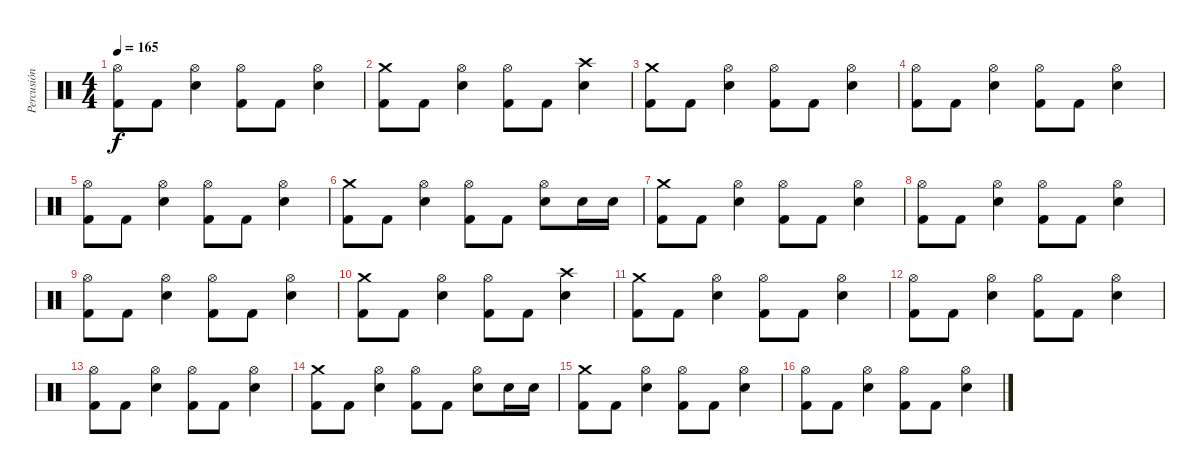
\track ("Percusión" "Percusión") {instrument percussion}
\staff {score}
\articulation defaults
\ts (4 4)
\tempo 165
\clef neutral
\ks c
("Hi-Hat (open)" "Kick (hit) 2").8{dy f} "Kick (hit) 2".8 ("Hi-Hat (open)" "Electric Snare (hit)").4 ("Hi-Hat (open)" "Kick (hit) 2").8 "Kick (hit) 2".8 ("Hi-Hat (open)" "Electric Snare (hit)").4 |
("Crash medium (hit)" "Kick (hit) 2").8 "Kick (hit) 2".8 ("Hi-Hat (open)" "Electric Snare (hit)").4 ("Hi-Hat (open)" "Kick (hit) 2").8 "Kick (hit) 2".8 ("Crash high (hit)" "Electric Snare (hit)").4 |
("Crash medium (hit)" "Kick (hit) 2").8 "Kick (hit) 2".8 ("Hi-Hat (open)" "Electric Snare (hit)").4 ("Hi-Hat (open)" "Kick (hit) 2").8 "Kick (hit) 2".8 ("Hi-Hat (open)" "Electric Snare (hit)").4 |
("Hi-Hat (open)" "Kick (hit) 2").8 "Kick (hit) 2".8 ("Hi-Hat (open)" "Electric Snare (hit)").4 ("Hi-Hat (open)" "Kick (hit) 2").8 "Kick (hit) 2".8 ("Hi-Hat (open)" "Electric Snare (hit)").4 |
("Hi-Hat (open)" "Kick (hit) 2").8 "Kick (hit) 2".8 ("Hi-Hat (open)" "Electric Snare (hit)").4 ("Hi-Hat (open)" "Kick (hit) 2").8 "Kick (hit) 2".8 ("Hi-Hat (open)" "Electric Snare (hit)").4 |
("Crash medium (hit)" "Kick (hit) 2").8 "Kick (hit) 2".8 ("Hi-Hat (open)" "Electric Snare (hit)").4 ("Hi-Hat (open)" "Kick (hit) 2").8 "Kick (hit) 2".8 ("Hi-Hat (open)" "Electric Snare (hit)").8 "Electric Snare (hit)".16 "Electric Snare (hit)".16 |
("Crash medium (hit)" "Kick (hit) 2").8 "Kick (hit) 2".8 ("Hi-Hat (open)" "Electric Snare (hit)").4 ("Hi-Hat (open)" "Kick (hit) 2").8 "Kick (hit) 2".8 ("Hi-Hat (open)" "Electric Snare (hit)").4 |
("Hi-Hat (open)" "Kick (hit) 2").8 "Kick (hit) 2".8 ("Hi-Hat (open)" "Electric Snare (hit)").4 ("Hi-Hat (open)" "Kick (hit) 2").8 "Kick (hit) 2".8 ("Hi-Hat (open)" "Electric Snare (hit)").4 |
("Hi-Hat (open)" "Kick (hit) 2").8 "Kick (hit) 2".8 ("Hi-Hat (open)" "Electric Snare (hit)").4 ("Hi-Hat (open)" "Kick (hit) 2").8 "Kick (hit) 2".8 ("Hi-Hat (open)" "Electric Snare (hit)").4 |
("Crash medium (hit)" "Kick (hit) 2").8 "Kick (hit) 2".8 ("Hi-Hat (open)" "Electric Snare (hit)").4 ("Hi-Hat (open)" "Kick (hit) 2").8 "Kick (hit) 2".8 ("Crash high (hit)" "Electric Snare (hit)").4 |
("Crash medium (hit)" "Kick (hit) 2").8 "Kick (hit) 2".8 ("Hi-Hat (open)" "Electric Snare (hit)").4 ("Hi-Hat (open)" "Kick (hit) 2").8 "Kick (hit) 2".8 ("Hi-Hat (open)" "Electric Snare (hit)").4 |
("Hi-Hat (open)" "Kick (hit) 2").8 "Kick (hit) 2".8 ("Hi-Hat (open)" "Electric Snare (hit)").4 ("Hi-Hat (open)" "Kick (hit) 2").8 "Kick (hit) 2".8 ("Hi-Hat (open)" "Electric Snare (hit)").4 |
("Hi-Hat (open)" "Kick (hit) 2").8 "Kick (hit) 2".8 ("Hi-Hat (open)" "Electric Snare (hit)").4 ("Hi-Hat (open)" "Kick (hit) 2").8 "Kick (hit) 2".8 ("Hi-Hat (open)" "Electric Snare (hit)").4 |
("Crash medium (hit)" "Kick (hit) 2").8 "Kick (hit) 2".8 ("Hi-Hat (open)" "Electric Snare (hit)").4 ("Hi-Hat (open)" "Kick (hit) 2").8 "Kick (hit) 2".8 ("Hi-Hat (open)" "Electric Snare (hit)").8 "Electric Snare (hit)".16 "Electric Snare (hit)".16 |
("Crash medium (hit)" "Kick (hit) 2").8 "Kick (hit) 2".8 ("Hi-Hat (open)" "Electric Snare (hit)").4 ("Hi-Hat (open)" "Kick (hit) 2").8 "Kick (hit) 2".8 ("Hi-Hat (open)" "Electric Snare (hit)").4 |
("Hi-Hat (open)" "Kick (hit) 2").8 "Kick (hit) 2".8 ("Hi-Hat (open)" "Electric Snare (hit)").4 ("Hi-Hat (open)" "Kick (hit) 2").8 "Kick (hit) 2".8 ("Hi-Hat (open)" "Electric Snare (hit)").4
